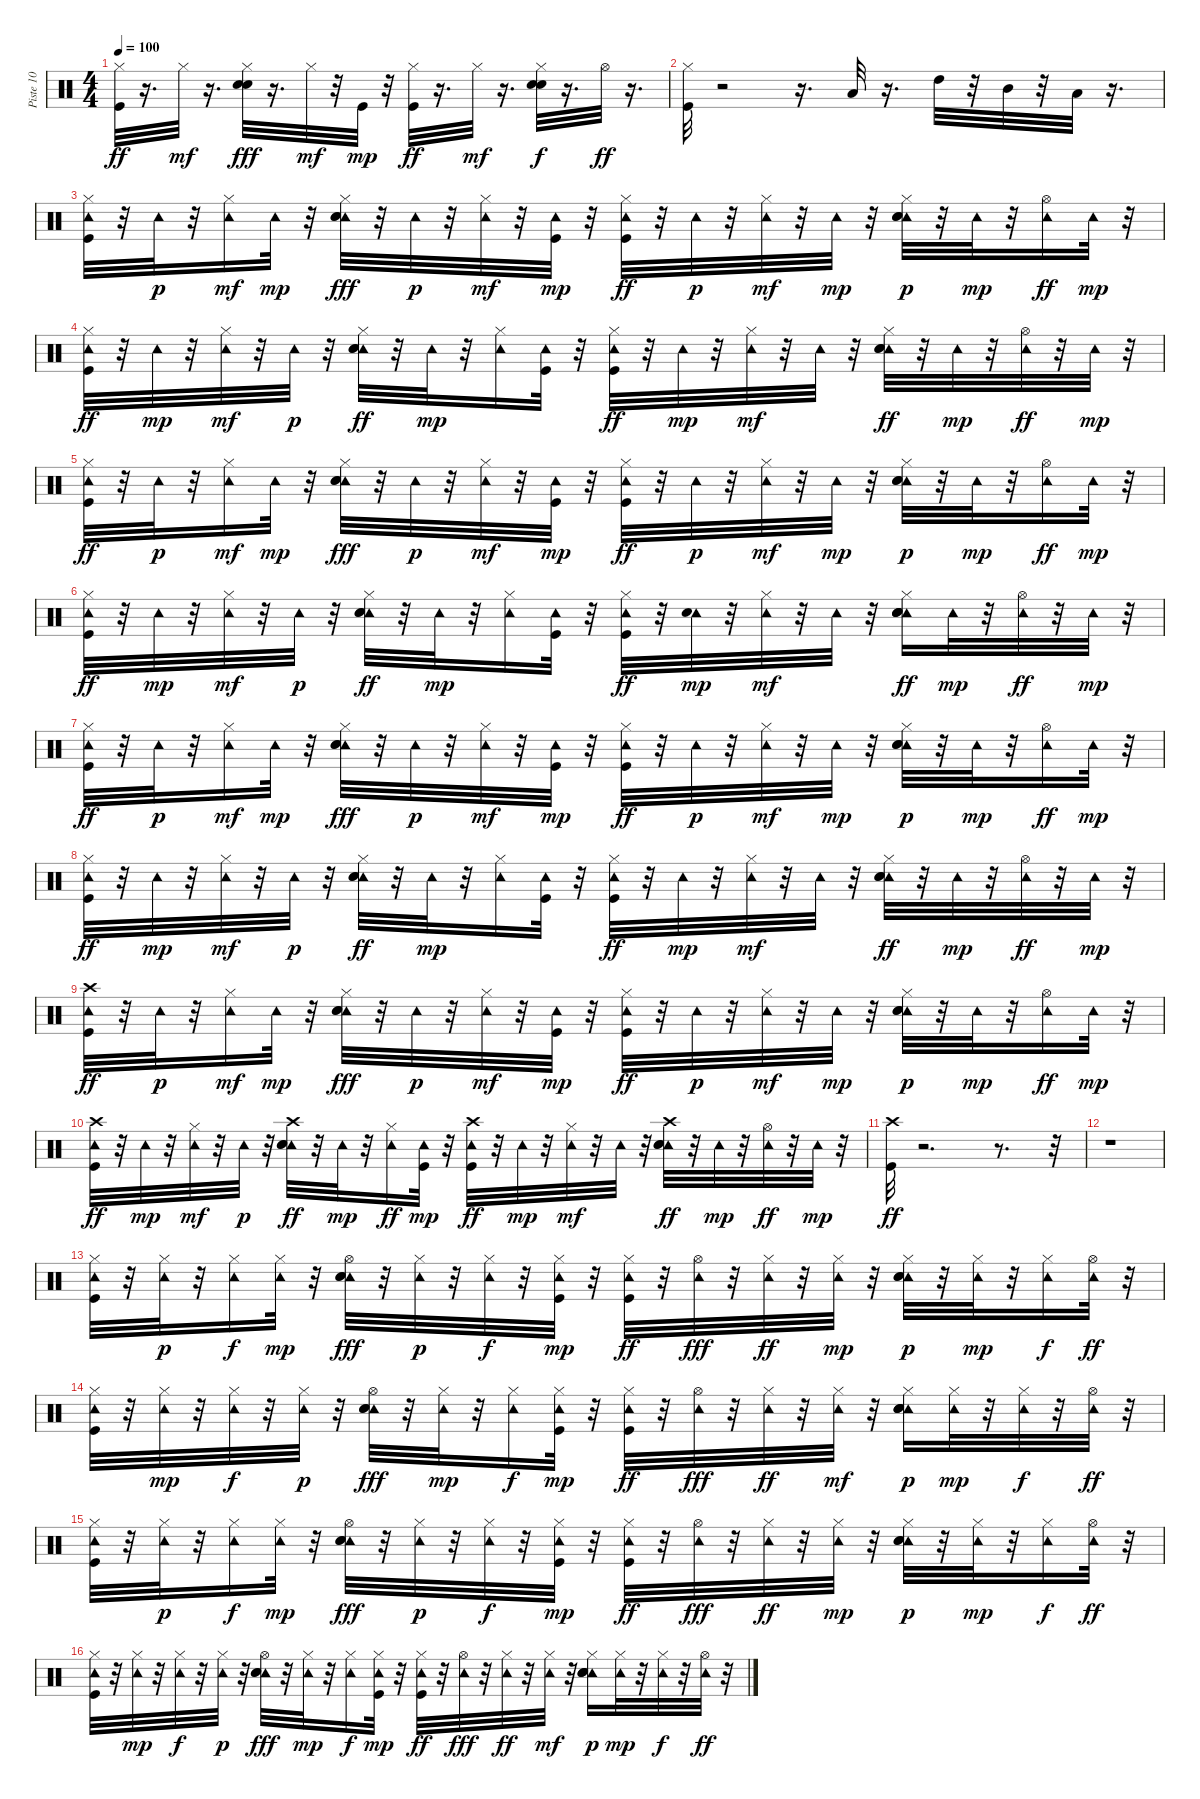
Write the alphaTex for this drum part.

\track ("Piste 10" "Piste 10") {instrument percussion}
\staff {score}
\articulation defaults
\ts (4 4)
\tempo 100
\clef neutral
\ks c
("Kick (hit)" "Hi-Hat (closed)").32{dy ff} r.16{d} "Hi-Hat (closed)".32{dy mf} r.16{d} ("Hi-Hat (closed)" "Electric Snare (hit)" "Hand Clap (hit)").32{dy fff} r.16{d} "Hi-Hat (closed)".32{dy mf} r.32 "Kick (hit)".32{dy mp} r.32 ("Hi-Hat (closed)" "Kick (hit)").32{dy ff} r.16{d} "Hi-Hat (closed)".32{dy mf} r.16{d} ("Hi-Hat (closed)" "Electric Snare (hit)" "Hand Clap (hit)").32{dy f} r.16{d} "Hi-Hat (open)".32{dy ff} r.16{d} |
("Hi-Hat (closed)" "Kick (hit)").32 r.2 r.16{d} "Low Tom (hit)".32 r.16{d} "High Tom (hit)".32 r.32 "Mid Tom (hit)".32 r.32 "Low Tom (hit)".32 r.16{d} |
("Tambourine (hit)" "Kick (hit)" "Hi-Hat (closed)").32 r.32 "Tambourine (hit)".32{dy p} r.32 ("Tambourine (hit)" "Hi-Hat (closed)").16{dy mf} "Tambourine (hit)".32{dy mp} r.32 ("Tambourine (hit)" "Hi-Hat (closed)" "Electric Snare (hit)" "Hand Clap (hit)").32{dy fff} r.32 "Tambourine (hit)".32{dy p} r.32 ("Tambourine (hit)" "Hi-Hat (closed)").32{dy mf} r.32 ("Tambourine (hit)" "Kick (hit)").32{dy mp} r.32 ("Tambourine (hit)" "Hi-Hat (closed)" "Kick (hit)").32{dy ff} r.32 "Tambourine (hit)".32{dy p} r.32 ("Tambourine (hit)" "Hi-Hat (closed)").32{dy mf} r.32 "Tambourine (hit)".32{dy mp} r.32 ("Tambourine (hit)" "Hi-Hat (closed)" "Electric Snare (hit)" "Hand Clap (hit)").32{dy p} r.32 "Tambourine (hit)".32{dy mp} r.32 ("Tambourine (hit)" "Hi-Hat (open)").16{dy ff} "Tambourine (hit)".32{dy mp} r.32 |
("Tambourine (hit)" "Hi-Hat (closed)" "Kick (hit)").32{dy ff} r.32 "Tambourine (hit)".32{dy mp} r.32 ("Tambourine (hit)" "Hi-Hat (closed)").32{dy mf} r.32 "Tambourine (hit)".32{dy p} r.32 ("Tambourine (hit)" "Hi-Hat (closed)" "Electric Snare (hit)" "Hand Clap (hit)").32{dy ff} r.32 "Tambourine (hit)".32{dy mp} r.32 ("Tambourine (hit)" "Hi-Hat (closed)").16 ("Tambourine (hit)" "Kick (hit)").32 r.32 ("Tambourine (hit)" "Hi-Hat (closed)" "Kick (hit)").32{dy ff} r.32 "Tambourine (hit)".32{dy mp} r.32 ("Tambourine (hit)" "Hi-Hat (closed)").32{dy mf} r.32 "Tambourine (hit)".32 r.32 ("Tambourine (hit)" "Hi-Hat (closed)" "Electric Snare (hit)" "Hand Clap (hit)").32{dy ff} r.32 "Tambourine (hit)".32{dy mp} r.32 ("Tambourine (hit)" "Hi-Hat (open)").32{dy ff} r.32 "Tambourine (hit)".32{dy mp} r.32 |
("Tambourine (hit)" "Kick (hit)" "Hi-Hat (closed)").32{dy ff} r.32 "Tambourine (hit)".32{dy p} r.32 ("Tambourine (hit)" "Hi-Hat (closed)").16{dy mf} "Tambourine (hit)".32{dy mp} r.32 ("Tambourine (hit)" "Hi-Hat (closed)" "Electric Snare (hit)" "Hand Clap (hit)").32{dy fff} r.32 "Tambourine (hit)".32{dy p} r.32 ("Tambourine (hit)" "Hi-Hat (closed)").32{dy mf} r.32 ("Tambourine (hit)" "Kick (hit)").32{dy mp} r.32 ("Tambourine (hit)" "Hi-Hat (closed)" "Kick (hit)").32{dy ff} r.32 "Tambourine (hit)".32{dy p} r.32 ("Tambourine (hit)" "Hi-Hat (closed)").32{dy mf} r.32 "Tambourine (hit)".32{dy mp} r.32 ("Tambourine (hit)" "Hi-Hat (closed)" "Electric Snare (hit)" "Hand Clap (hit)").32{dy p} r.32 "Tambourine (hit)".32{dy mp} r.32 ("Tambourine (hit)" "Hi-Hat (open)").16{dy ff} "Tambourine (hit)".32{dy mp} r.32 |
("Tambourine (hit)" "Hi-Hat (closed)" "Kick (hit)").32{dy ff} r.32 "Tambourine (hit)".32{dy mp} r.32 ("Tambourine (hit)" "Hi-Hat (closed)").32{dy mf} r.32 "Tambourine (hit)".32{dy p} r.32 ("Tambourine (hit)" "Hi-Hat (closed)" "Electric Snare (hit)" "Hand Clap (hit)").32{dy ff} r.32 "Tambourine (hit)".32{dy mp} r.32 ("Tambourine (hit)" "Hi-Hat (closed)").16 ("Tambourine (hit)" "Kick (hit)").32 r.32 ("Tambourine (hit)" "Hi-Hat (closed)" "Kick (hit)").32{dy ff} r.32 ("Tambourine (hit)" "Electric Snare (hit)").32{dy mp} r.32 ("Tambourine (hit)" "Hi-Hat (closed)").32{dy mf} r.32 "Tambourine (hit)".32 r.32 ("Tambourine (hit)" "Hi-Hat (closed)" "Electric Snare (hit)" "Hand Clap (hit)" "Hand Clap (hit)").16{dy ff} "Tambourine (hit)".32{dy mp} r.32 ("Tambourine (hit)" "Hi-Hat (open)").32{dy ff} r.32 "Tambourine (hit)".32{dy mp} r.32 |
("Tambourine (hit)" "Kick (hit)" "Hi-Hat (closed)").32{dy ff} r.32 "Tambourine (hit)".32{dy p} r.32 ("Tambourine (hit)" "Hi-Hat (closed)").16{dy mf} "Tambourine (hit)".32{dy mp} r.32 ("Tambourine (hit)" "Hi-Hat (closed)" "Electric Snare (hit)" "Hand Clap (hit)").32{dy fff} r.32 "Tambourine (hit)".32{dy p} r.32 ("Tambourine (hit)" "Hi-Hat (closed)").32{dy mf} r.32 ("Tambourine (hit)" "Kick (hit)").32{dy mp} r.32 ("Tambourine (hit)" "Hi-Hat (closed)" "Kick (hit)").32{dy ff} r.32 "Tambourine (hit)".32{dy p} r.32 ("Tambourine (hit)" "Hi-Hat (closed)").32{dy mf} r.32 "Tambourine (hit)".32{dy mp} r.32 ("Tambourine (hit)" "Hi-Hat (closed)" "Electric Snare (hit)" "Hand Clap (hit)").32{dy p} r.32 "Tambourine (hit)".32{dy mp} r.32 ("Tambourine (hit)" "Hi-Hat (open)").16{dy ff} "Tambourine (hit)".32{dy mp} r.32 |
("Tambourine (hit)" "Hi-Hat (closed)" "Kick (hit)").32{dy ff} r.32 "Tambourine (hit)".32{dy mp} r.32 ("Tambourine (hit)" "Hi-Hat (closed)").32{dy mf} r.32 "Tambourine (hit)".32{dy p} r.32 ("Tambourine (hit)" "Hi-Hat (closed)" "Electric Snare (hit)" "Hand Clap (hit)").32{dy ff} r.32 "Tambourine (hit)".32{dy mp} r.32 ("Tambourine (hit)" "Hi-Hat (closed)").16 ("Tambourine (hit)" "Kick (hit)").32 r.32 ("Tambourine (hit)" "Hi-Hat (closed)" "Kick (hit)").32{dy ff} r.32 "Tambourine (hit)".32{dy mp} r.32 ("Tambourine (hit)" "Hi-Hat (closed)").32{dy mf} r.32 "Tambourine (hit)".32 r.32 ("Tambourine (hit)" "Hi-Hat (closed)" "Electric Snare (hit)" "Hand Clap (hit)").32{dy ff} r.32 "Tambourine (hit)".32{dy mp} r.32 ("Tambourine (hit)" "Hi-Hat (open)").32{dy ff} r.32 "Tambourine (hit)".32{dy mp} r.32 |
("Tambourine (hit)" "Kick (hit)" "Crash high (hit)").32{dy ff} r.32 "Tambourine (hit)".32{dy p} r.32 ("Tambourine (hit)" "Hi-Hat (closed)").16{dy mf} "Tambourine (hit)".32{dy mp} r.32 ("Tambourine (hit)" "Hi-Hat (closed)" "Electric Snare (hit)" "Hand Clap (hit)").32{dy fff} r.32 "Tambourine (hit)".32{dy p} r.32 ("Tambourine (hit)" "Hi-Hat (closed)").32{dy mf} r.32 ("Tambourine (hit)" "Kick (hit)").32{dy mp} r.32 ("Tambourine (hit)" "Hi-Hat (closed)" "Kick (hit)").32{dy ff} r.32 "Tambourine (hit)".32{dy p} r.32 ("Tambourine (hit)" "Hi-Hat (closed)").32{dy mf} r.32 "Tambourine (hit)".32{dy mp} r.32 ("Tambourine (hit)" "Hi-Hat (closed)" "Electric Snare (hit)" "Hand Clap (hit)").32{dy p} r.32 "Tambourine (hit)".32{dy mp} r.32 ("Tambourine (hit)" "Hi-Hat (open)").16{dy ff} "Tambourine (hit)".32{dy mp} r.32 |
("Tambourine (hit)" "Kick (hit)" "Crash high (hit)").32{dy ff} r.32 "Tambourine (hit)".32{dy mp} r.32 ("Tambourine (hit)" "Hi-Hat (closed)").32{dy mf} r.32 "Tambourine (hit)".32{dy p} r.32 ("Tambourine (hit)" "Crash high (hit)" "Electric Snare (hit)" "Hand Clap (hit)").32{dy ff} r.32 "Tambourine (hit)".32{dy mp} r.32 ("Tambourine (hit)" "Hi-Hat (closed)").16{dy ff} ("Tambourine (hit)" "Kick (hit)").32{dy mp} r.32 ("Tambourine (hit)" "Kick (hit)" "Crash high (hit)").32{dy ff} r.32 "Tambourine (hit)".32{dy mp} r.32 ("Tambourine (hit)" "Hi-Hat (closed)").32{dy mf} r.32 "Tambourine (hit)".32 r.32 ("Tambourine (hit)" "Crash high (hit)" "Electric Snare (hit)" "Hand Clap (hit)").32{dy ff} r.32 "Tambourine (hit)".32{dy mp} r.32 ("Tambourine (hit)" "Hi-Hat (open)").32{dy ff} r.32 "Tambourine (hit)".32{dy mp} r.32 |
("Crash high (hit)" "Kick (hit)").32{dy ff} r.2{d} r.8{d} r.32 |
r.1 |
("Tambourine (hit)" "Kick (hit)" "Hi-Hat (closed)").32 r.32 ("Tambourine (hit)" "Hi-Hat (closed)").32{dy p} r.32 ("Tambourine (hit)" "Hi-Hat (closed)").16{dy f} ("Tambourine (hit)" "Hi-Hat (closed)").32{dy mp} r.32 ("Tambourine (hit)" "Hi-Hat (open)" "Electric Snare (hit)" "Hand Clap (hit)").32{dy fff} r.32 ("Tambourine (hit)" "Hi-Hat (closed)").32{dy p} r.32 ("Tambourine (hit)" "Hi-Hat (closed)").32{dy f} r.32 ("Tambourine (hit)" "Hi-Hat (closed)" "Kick (hit)").32{dy mp} r.32 ("Tambourine (hit)" "Hi-Hat (closed)" "Kick (hit)").32{dy ff} r.32 ("Tambourine (hit)" "Hi-Hat (open)").32{dy fff} r.32 ("Tambourine (hit)" "Hi-Hat (closed)").32{dy ff} r.32 ("Tambourine (hit)" "Hi-Hat (closed)").32{dy mp} r.32 ("Tambourine (hit)" "Hi-Hat (closed)" "Electric Snare (hit)" "Hand Clap (hit)").32{dy p} r.32 ("Tambourine (hit)" "Hi-Hat (closed)").32{dy mp} r.32 ("Tambourine (hit)" "Hi-Hat (closed)").16{dy f} ("Tambourine (hit)" "Hi-Hat (open)").32{dy ff} r.32 |
("Tambourine (hit)" "Kick (hit)" "Hi-Hat (closed)").32 r.32 ("Tambourine (hit)" "Hi-Hat (closed)").32{dy mp} r.32 ("Tambourine (hit)" "Hi-Hat (closed)").32{dy f} r.32 ("Tambourine (hit)" "Hi-Hat (closed)").32{dy p} r.32 ("Tambourine (hit)" "Hi-Hat (open)" "Electric Snare (hit)" "Hand Clap (hit)").32{dy fff} r.32 ("Tambourine (hit)" "Hi-Hat (closed)").32{dy mp} r.32 ("Tambourine (hit)" "Hi-Hat (closed)").16{dy f} ("Tambourine (hit)" "Hi-Hat (closed)" "Kick (hit)").32{dy mp} r.32 ("Tambourine (hit)" "Kick (hit)" "Hi-Hat (closed)").32{dy ff} r.32 ("Tambourine (hit)" "Hi-Hat (open)").32{dy fff} r.32 ("Tambourine (hit)" "Hi-Hat (closed)").32{dy ff} r.32 ("Tambourine (hit)" "Hi-Hat (closed)").32{dy mf} r.32 ("Tambourine (hit)" "Hi-Hat (closed)" "Electric Snare (hit)" "Hand Clap (hit)" "Hand Clap (hit)").16{dy p} ("Tambourine (hit)" "Hi-Hat (closed)").32{dy mp} r.32 ("Tambourine (hit)" "Hi-Hat (closed)").32{dy f} r.32 ("Tambourine (hit)" "Hi-Hat (open)").32{dy ff} r.32 |
("Tambourine (hit)" "Kick (hit)" "Hi-Hat (closed)").32 r.32 ("Tambourine (hit)" "Hi-Hat (closed)").32{dy p} r.32 ("Tambourine (hit)" "Hi-Hat (closed)").16{dy f} ("Tambourine (hit)" "Hi-Hat (closed)").32{dy mp} r.32 ("Tambourine (hit)" "Hi-Hat (open)" "Electric Snare (hit)" "Hand Clap (hit)").32{dy fff} r.32 ("Tambourine (hit)" "Hi-Hat (closed)").32{dy p} r.32 ("Tambourine (hit)" "Hi-Hat (closed)").32{dy f} r.32 ("Tambourine (hit)" "Hi-Hat (closed)" "Kick (hit)").32{dy mp} r.32 ("Tambourine (hit)" "Hi-Hat (closed)" "Kick (hit)").32{dy ff} r.32 ("Tambourine (hit)" "Hi-Hat (open)").32{dy fff} r.32 ("Tambourine (hit)" "Hi-Hat (closed)").32{dy ff} r.32 ("Tambourine (hit)" "Hi-Hat (closed)").32{dy mp} r.32 ("Tambourine (hit)" "Hi-Hat (closed)" "Electric Snare (hit)" "Hand Clap (hit)").32{dy p} r.32 ("Tambourine (hit)" "Hi-Hat (closed)").32{dy mp} r.32 ("Tambourine (hit)" "Hi-Hat (closed)").16{dy f} ("Tambourine (hit)" "Hi-Hat (open)").32{dy ff} r.32 |
("Tambourine (hit)" "Kick (hit)" "Hi-Hat (closed)").32 r.32 ("Tambourine (hit)" "Hi-Hat (closed)").32{dy mp} r.32 ("Tambourine (hit)" "Hi-Hat (closed)").32{dy f} r.32 ("Tambourine (hit)" "Hi-Hat (closed)").32{dy p} r.32 ("Tambourine (hit)" "Hi-Hat (open)" "Electric Snare (hit)" "Hand Clap (hit)").32{dy fff} r.32 ("Tambourine (hit)" "Hi-Hat (closed)").32{dy mp} r.32 ("Tambourine (hit)" "Hi-Hat (closed)").16{dy f} ("Tambourine (hit)" "Hi-Hat (closed)" "Kick (hit)").32{dy mp} r.32 ("Tambourine (hit)" "Kick (hit)" "Hi-Hat (closed)").32{dy ff} r.32 ("Tambourine (hit)" "Hi-Hat (open)").32{dy fff} r.32 ("Tambourine (hit)" "Hi-Hat (closed)").32{dy ff} r.32 ("Tambourine (hit)" "Hi-Hat (closed)").32{dy mf} r.32 ("Tambourine (hit)" "Hi-Hat (closed)" "Electric Snare (hit)" "Hand Clap (hit)" "Hand Clap (hit)").16{dy p} ("Tambourine (hit)" "Hi-Hat (closed)").32{dy mp} r.32 ("Tambourine (hit)" "Hi-Hat (closed)").32{dy f} r.32 ("Tambourine (hit)" "Hi-Hat (open)").32{dy ff} r.32
